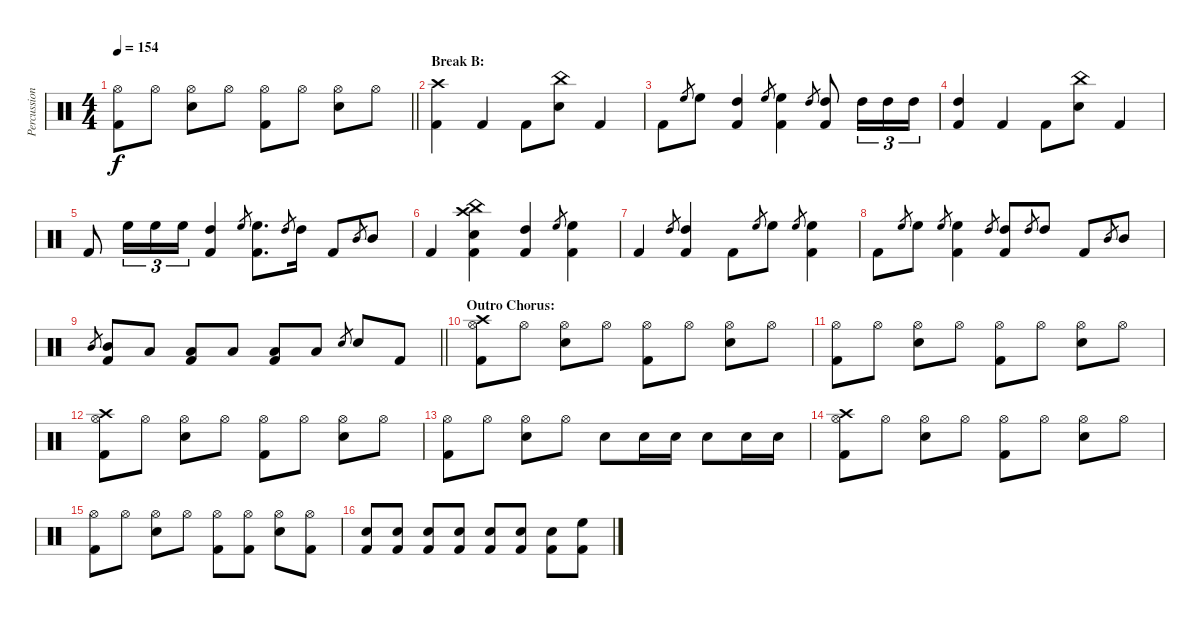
\track ("Percussion" "Percussion") {instrument percussion}
\staff {score}
\articulation defaults
\ts (4 4)
\tempo 154
\clef neutral
\barLineRight lightlight
\ks c
("Hi-Hat (open)" "Kick (hit) 2").8{dy f} "Hi-Hat (open)".8 ("Hi-Hat (open)" "Snare (hit) 2").8 "Hi-Hat (open)".8 ("Hi-Hat (open)" "Kick (hit) 2").8 "Hi-Hat (open)".8 ("Hi-Hat (open)" "Snare (hit) 2").8 "Hi-Hat (open)".8 |
\section ("" "Break B:")
("Crash high (hit)" "Kick (hit) 2").4 "Kick (hit) 2".4 "Kick (hit) 2".8 ("China (hit)" "Snare (hit) 2").8 "Kick (hit) 2".4 |
"Kick (hit) 2".8 "High Floor Tom (hit)".8{gr} "High Floor Tom (hit)".8 ("High Tom (hit)" "Kick (hit) 2").4 "High Floor Tom (hit)".8{gr} ("High Floor Tom (hit)" "Kick (hit) 2").4 "High Tom (hit)".8{gr} ("High Tom (hit)" "Kick (hit) 2").8 "High Tom (hit)".16{tu (3 2)} "High Tom (hit)".16{tu (3 2)} "High Tom (hit)".16{tu (3 2)} |
("High Tom (hit)" "Kick (hit) 2").4 "Kick (hit) 2".4 "Kick (hit) 2".8 ("China (hit)" "Snare (hit) 2").8 "Kick (hit) 2".4 |
"Kick (hit) 2".8 "High Floor Tom (hit)".16{tu (3 2)} "High Floor Tom (hit)".16{tu (3 2)} "High Floor Tom (hit)".16{tu (3 2)} ("High Tom (hit)" "Kick (hit) 2").4 "High Floor Tom (hit)".8{gr} ("High Floor Tom (hit)" "Kick (hit) 2").8{d} "High Tom (hit)".8{gr} "High Tom (hit)".16 "Kick (hit) 2".8 "Mid Tom (hit)".8{gr} "Mid Tom (hit)".8 |
"Kick (hit) 2".4 ("Crash high (hit)" "China (hit)" "Snare (hit) 2" "Kick (hit) 2").4 ("High Tom (hit)" "Kick (hit) 2").4 "High Floor Tom (hit)".8{gr} ("High Floor Tom (hit)" "Kick (hit) 2").4 |
"Kick (hit) 2".4 "High Tom (hit)".8{gr} ("High Tom (hit)" "Kick (hit) 2").4 "Kick (hit) 2".8 "High Floor Tom (hit)".8{gr} "High Floor Tom (hit)".8 "High Floor Tom (hit)".8{gr} ("High Floor Tom (hit)" "Kick (hit) 2").4 |
"Kick (hit) 2".8 "High Floor Tom (hit)".8{gr} "High Floor Tom (hit)".8 "High Floor Tom (hit)".8{gr} ("High Floor Tom (hit)" "Kick (hit) 2").4 "High Tom (hit)".8{gr} ("High Tom (hit)" "Kick (hit) 2").8 "High Tom (hit)".8{gr} "High Tom (hit)".8 "Kick (hit) 2".8 "Mid Tom (hit)".8{gr} "Mid Tom (hit)".8 |
\barLineRight lightlight "Mid Tom (hit)".8{gr}
("Mid Tom (hit)" "Kick (hit) 2").8 "Low Tom (hit)".8 ("Low Tom (hit)" "Kick (hit) 2").8 "Low Tom (hit)".8 ("Low Tom (hit)" "Kick (hit) 2").8 "Low Tom (hit)".8 "Snare (hit) 2".8{gr} "Snare (hit) 2".8 "Kick (hit) 2".8 |
\section ("" "Outro Chorus:")
("Hi-Hat (open)" "Crash high (hit)" "Kick (hit) 2").8 "Hi-Hat (open)".8 ("Hi-Hat (open)" "Snare (hit) 2").8 "Hi-Hat (open)".8 ("Hi-Hat (open)" "Kick (hit) 2").8 "Hi-Hat (open)".8 ("Hi-Hat (open)" "Snare (hit) 2").8 "Hi-Hat (open)".8 |
("Hi-Hat (open)" "Kick (hit) 2").8 "Hi-Hat (open)".8 ("Hi-Hat (open)" "Snare (hit) 2").8 "Hi-Hat (open)".8 ("Hi-Hat (open)" "Kick (hit) 2").8 "Hi-Hat (open)".8 ("Hi-Hat (open)" "Snare (hit) 2").8 "Hi-Hat (open)".8 |
("Hi-Hat (open)" "Crash high (hit)" "Kick (hit) 2").8 "Hi-Hat (open)".8 ("Hi-Hat (open)" "Snare (hit) 2").8 "Hi-Hat (open)".8 ("Hi-Hat (open)" "Kick (hit) 2").8 "Hi-Hat (open)".8 ("Hi-Hat (open)" "Snare (hit) 2").8 "Hi-Hat (open)".8 |
("Hi-Hat (open)" "Kick (hit) 2").8 "Hi-Hat (open)".8 ("Hi-Hat (open)" "Snare (hit) 2").8 "Hi-Hat (open)".8 "Snare (hit) 2".8 "Snare (hit) 2".16 "Snare (hit) 2".16 "Snare (hit) 2".8 "Snare (hit) 2".16 "Snare (hit) 2".16 |
("Hi-Hat (open)" "Crash high (hit)" "Kick (hit) 2").8 "Hi-Hat (open)".8 ("Hi-Hat (open)" "Snare (hit) 2").8 "Hi-Hat (open)".8 ("Hi-Hat (open)" "Kick (hit) 2").8 "Hi-Hat (open)".8 ("Hi-Hat (open)" "Snare (hit) 2").8 "Hi-Hat (open)".8 |
("Hi-Hat (open)" "Kick (hit) 2").8 "Hi-Hat (open)".8 ("Hi-Hat (open)" "Snare (hit) 2").8 "Hi-Hat (open)".8 ("Hi-Hat (open)" "Kick (hit) 2").8 ("Hi-Hat (open)" "Kick (hit) 2").8 ("Hi-Hat (open)" "Snare (hit) 2").8 ("Hi-Hat (open)" "Kick (hit) 2").8 |
("Snare (hit) 2" "Kick (hit) 2").8 ("Snare (hit) 2" "Kick (hit) 2").8 ("Snare (hit) 2" "Kick (hit) 2").8 ("Snare (hit) 2" "Kick (hit) 2").8 ("Snare (hit) 2" "Kick (hit) 2").8 ("Snare (hit) 2" "Kick (hit) 2").8 ("Snare (hit) 2" "Kick (hit) 2").8 ("High Floor Tom (hit)" "Kick (hit) 2").8
